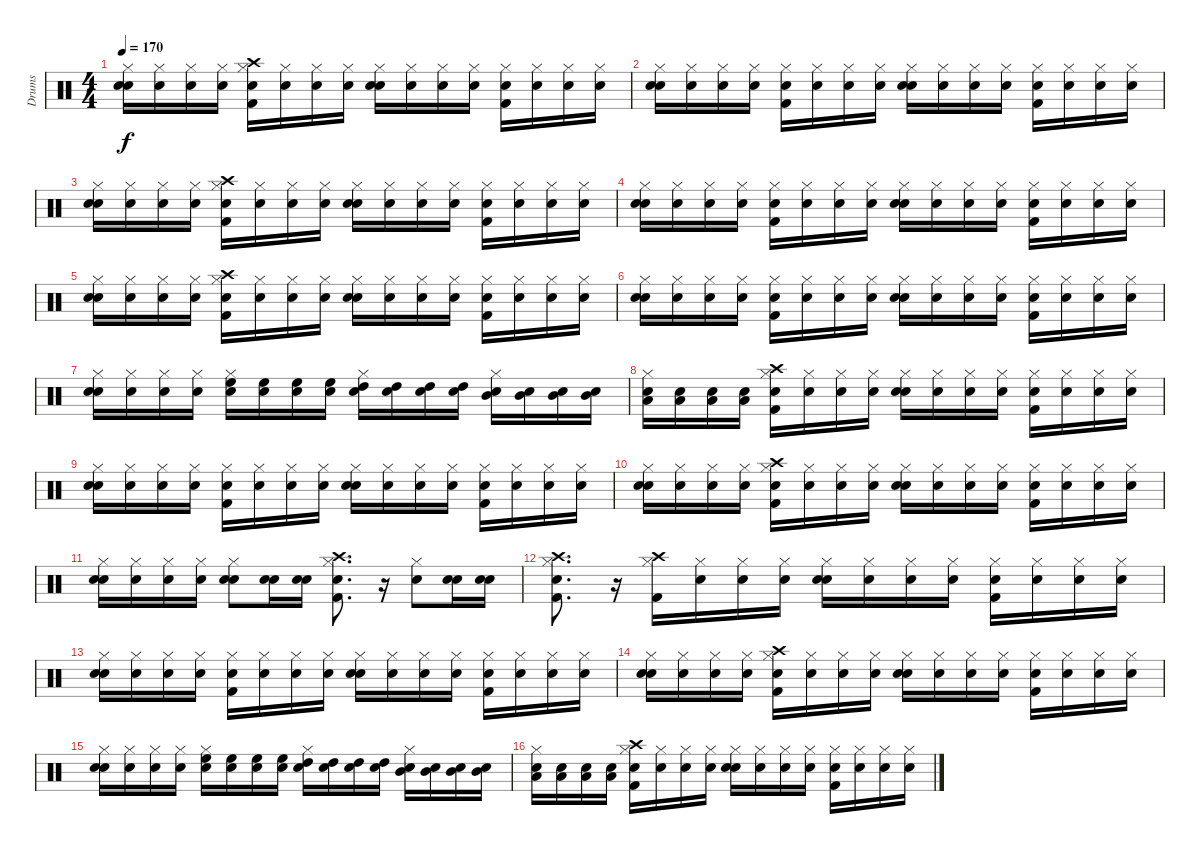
\track ("Drums" "Drums") {instrument percussion}
\staff {score}
\articulation defaults
\ts (4 4)
\tempo 170
\clef neutral
\ks c
("Snare (hit)" "Snare (hit) 2" "Hi-Hat (closed)").16{dy f} ("Snare (hit)" "Hi-Hat (closed)").16 ("Snare (hit)" "Hi-Hat (closed)").16 ("Snare (hit)" "Hi-Hat (closed)").16 ("Snare (hit)" "Kick (hit) 2" "Hi-Hat (closed)" "Crash high (hit)").16 ("Snare (hit)" "Hi-Hat (closed)").16 ("Snare (hit)" "Hi-Hat (closed)").16 ("Snare (hit)" "Hi-Hat (closed)").16 ("Snare (hit)" "Snare (hit) 2" "Hi-Hat (closed)").16 ("Snare (hit)" "Hi-Hat (closed)").16 ("Snare (hit)" "Hi-Hat (closed)").16 ("Snare (hit)" "Hi-Hat (closed)").16 ("Snare (hit)" "Kick (hit) 2" "Hi-Hat (closed)").16 ("Snare (hit)" "Hi-Hat (closed)").16 ("Snare (hit)" "Hi-Hat (closed)").16 ("Snare (hit)" "Hi-Hat (closed)").16 |
("Snare (hit)" "Snare (hit) 2" "Hi-Hat (closed)").16 ("Snare (hit)" "Hi-Hat (closed)").16 ("Snare (hit)" "Hi-Hat (closed)").16 ("Snare (hit)" "Hi-Hat (closed)").16 ("Snare (hit)" "Kick (hit) 2" "Hi-Hat (closed)").16 ("Snare (hit)" "Hi-Hat (closed)").16 ("Snare (hit)" "Hi-Hat (closed)").16 ("Snare (hit)" "Hi-Hat (closed)").16 ("Snare (hit)" "Snare (hit) 2" "Hi-Hat (closed)").16 ("Snare (hit)" "Hi-Hat (closed)").16 ("Snare (hit)" "Hi-Hat (closed)").16 ("Snare (hit)" "Hi-Hat (closed)").16 ("Snare (hit)" "Kick (hit) 2" "Hi-Hat (closed)").16 ("Snare (hit)" "Hi-Hat (closed)").16 ("Snare (hit)" "Hi-Hat (closed)").16 ("Snare (hit)" "Hi-Hat (closed)").16 |
("Snare (hit)" "Snare (hit) 2" "Hi-Hat (closed)").16 ("Snare (hit)" "Hi-Hat (closed)").16 ("Snare (hit)" "Hi-Hat (closed)").16 ("Snare (hit)" "Hi-Hat (closed)").16 ("Snare (hit)" "Kick (hit) 2" "Hi-Hat (closed)" "Crash high (hit)").16 ("Snare (hit)" "Hi-Hat (closed)").16 ("Snare (hit)" "Hi-Hat (closed)").16 ("Snare (hit)" "Hi-Hat (closed)").16 ("Snare (hit)" "Snare (hit) 2" "Hi-Hat (closed)").16 ("Snare (hit)" "Hi-Hat (closed)").16 ("Snare (hit)" "Hi-Hat (closed)").16 ("Snare (hit)" "Hi-Hat (closed)").16 ("Snare (hit)" "Kick (hit) 2" "Hi-Hat (closed)").16 ("Snare (hit)" "Hi-Hat (closed)").16 ("Snare (hit)" "Hi-Hat (closed)").16 ("Snare (hit)" "Hi-Hat (closed)").16 |
("Snare (hit)" "Snare (hit) 2" "Hi-Hat (closed)").16 ("Snare (hit)" "Hi-Hat (closed)").16 ("Snare (hit)" "Hi-Hat (closed)").16 ("Snare (hit)" "Hi-Hat (closed)").16 ("Snare (hit)" "Kick (hit) 2" "Hi-Hat (closed)").16 ("Snare (hit)" "Hi-Hat (closed)").16 ("Snare (hit)" "Hi-Hat (closed)").16 ("Snare (hit)" "Hi-Hat (closed)").16 ("Snare (hit)" "Snare (hit) 2" "Hi-Hat (closed)").16 ("Snare (hit)" "Hi-Hat (closed)").16 ("Snare (hit)" "Hi-Hat (closed)").16 ("Snare (hit)" "Hi-Hat (closed)").16 ("Snare (hit)" "Kick (hit) 2" "Hi-Hat (closed)").16 ("Snare (hit)" "Hi-Hat (closed)").16 ("Snare (hit)" "Hi-Hat (closed)").16 ("Snare (hit)" "Hi-Hat (closed)").16 |
("Snare (hit)" "Snare (hit) 2" "Hi-Hat (closed)").16 ("Snare (hit)" "Hi-Hat (closed)").16 ("Snare (hit)" "Hi-Hat (closed)").16 ("Snare (hit)" "Hi-Hat (closed)").16 ("Snare (hit)" "Kick (hit) 2" "Hi-Hat (closed)" "Crash high (hit)").16 ("Snare (hit)" "Hi-Hat (closed)").16 ("Snare (hit)" "Hi-Hat (closed)").16 ("Snare (hit)" "Hi-Hat (closed)").16 ("Snare (hit)" "Snare (hit) 2" "Hi-Hat (closed)").16 ("Snare (hit)" "Hi-Hat (closed)").16 ("Snare (hit)" "Hi-Hat (closed)").16 ("Snare (hit)" "Hi-Hat (closed)").16 ("Snare (hit)" "Kick (hit) 2" "Hi-Hat (closed)").16 ("Snare (hit)" "Hi-Hat (closed)").16 ("Snare (hit)" "Hi-Hat (closed)").16 ("Snare (hit)" "Hi-Hat (closed)").16 |
("Snare (hit)" "Snare (hit) 2" "Hi-Hat (closed)").16 ("Snare (hit)" "Hi-Hat (closed)").16 ("Snare (hit)" "Hi-Hat (closed)").16 ("Snare (hit)" "Hi-Hat (closed)").16 ("Snare (hit)" "Kick (hit) 2" "Hi-Hat (closed)").16 ("Snare (hit)" "Hi-Hat (closed)").16 ("Snare (hit)" "Hi-Hat (closed)").16 ("Snare (hit)" "Hi-Hat (closed)").16 ("Snare (hit)" "Snare (hit) 2" "Hi-Hat (closed)").16 ("Snare (hit)" "Hi-Hat (closed)").16 ("Snare (hit)" "Hi-Hat (closed)").16 ("Snare (hit)" "Hi-Hat (closed)").16 ("Snare (hit)" "Kick (hit) 2" "Hi-Hat (closed)").16 ("Snare (hit)" "Hi-Hat (closed)").16 ("Snare (hit)" "Hi-Hat (closed)").16 ("Snare (hit)" "Hi-Hat (closed)").16 |
("Snare (hit)" "Snare (hit) 2" "Hi-Hat (closed)").16 ("Snare (hit)" "Hi-Hat (closed)").16 ("Snare (hit)" "Hi-Hat (closed)").16 ("Snare (hit)" "Hi-Hat (closed)").16 ("Snare (hit)" "Hi-Hat (closed)" "High Floor Tom (hit)").16 ("Snare (hit)" "High Floor Tom (hit)").16 ("Snare (hit)" "High Floor Tom (hit)").16 ("Snare (hit)" "High Floor Tom (hit)").16 ("Snare (hit)" "Hi-Hat (closed)" "High Tom (hit)").16 ("Snare (hit)" "High Tom (hit)").16 ("Snare (hit)" "High Tom (hit)").16 ("Snare (hit)" "High Tom (hit)").16 ("Snare (hit)" "Hi-Hat (closed)" "Mid Tom (hit)").16 ("Snare (hit)" "Mid Tom (hit)").16 ("Snare (hit)" "Mid Tom (hit)").16 ("Snare (hit)" "Mid Tom (hit)").16 |
("Snare (hit)" "Hi-Hat (closed)" "Low Tom (hit)").16 ("Snare (hit)" "Low Tom (hit)").16 ("Snare (hit)" "Low Tom (hit)").16 ("Snare (hit)" "Low Tom (hit)").16 ("Snare (hit)" "Kick (hit) 2" "Hi-Hat (closed)" "Crash high (hit)").16 ("Snare (hit)" "Hi-Hat (closed)").16 ("Snare (hit)" "Hi-Hat (closed)").16 ("Snare (hit)" "Hi-Hat (closed)").16 ("Snare (hit)" "Snare (hit) 2" "Hi-Hat (closed)").16 ("Snare (hit)" "Hi-Hat (closed)").16 ("Snare (hit)" "Hi-Hat (closed)").16 ("Snare (hit)" "Hi-Hat (closed)").16 ("Snare (hit)" "Kick (hit) 2" "Hi-Hat (closed)").16 ("Snare (hit)" "Hi-Hat (closed)").16 ("Snare (hit)" "Hi-Hat (closed)").16 ("Snare (hit)" "Hi-Hat (closed)").16 |
("Snare (hit)" "Snare (hit) 2" "Hi-Hat (closed)").16 ("Snare (hit)" "Hi-Hat (closed)").16 ("Snare (hit)" "Hi-Hat (closed)").16 ("Snare (hit)" "Hi-Hat (closed)").16 ("Snare (hit)" "Kick (hit) 2" "Hi-Hat (closed)").16 ("Snare (hit)" "Hi-Hat (closed)").16 ("Snare (hit)" "Hi-Hat (closed)").16 ("Snare (hit)" "Hi-Hat (closed)").16 ("Snare (hit)" "Snare (hit) 2" "Hi-Hat (closed)").16 ("Snare (hit)" "Hi-Hat (closed)").16 ("Snare (hit)" "Hi-Hat (closed)").16 ("Snare (hit)" "Hi-Hat (closed)").16 ("Snare (hit)" "Kick (hit) 2" "Hi-Hat (closed)").16 ("Snare (hit)" "Hi-Hat (closed)").16 ("Snare (hit)" "Hi-Hat (closed)").16 ("Snare (hit)" "Hi-Hat (closed)").16 |
("Snare (hit)" "Snare (hit) 2" "Hi-Hat (closed)").16 ("Snare (hit)" "Hi-Hat (closed)").16 ("Snare (hit)" "Hi-Hat (closed)").16 ("Snare (hit)" "Hi-Hat (closed)").16 ("Snare (hit)" "Kick (hit) 2" "Hi-Hat (closed)" "Crash high (hit)").16 ("Snare (hit)" "Hi-Hat (closed)").16 ("Snare (hit)" "Hi-Hat (closed)").16 ("Snare (hit)" "Hi-Hat (closed)").16 ("Snare (hit)" "Snare (hit) 2" "Hi-Hat (closed)").16 ("Snare (hit)" "Hi-Hat (closed)").16 ("Snare (hit)" "Hi-Hat (closed)").16 ("Snare (hit)" "Hi-Hat (closed)").16 ("Snare (hit)" "Kick (hit) 2" "Hi-Hat (closed)").16 ("Snare (hit)" "Hi-Hat (closed)").16 ("Snare (hit)" "Hi-Hat (closed)").16 ("Snare (hit)" "Hi-Hat (closed)").16 |
("Snare (hit)" "Snare (hit) 2" "Hi-Hat (closed)").16 ("Snare (hit)" "Hi-Hat (closed)").16 ("Snare (hit)" "Hi-Hat (closed)").16 ("Snare (hit)" "Hi-Hat (closed)").16 ("Snare (hit)" "Snare (hit) 2" "Hi-Hat (closed)").8 ("Snare (hit)" "Snare (hit) 2").16 ("Snare (hit)" "Snare (hit) 2").16 ("Snare (hit)" "Kick (hit) 2" "Hi-Hat (closed)" "Crash high (hit)").8{d} r.16 ("Snare (hit) 2" "Hi-Hat (closed)").8 ("Snare (hit)" "Snare (hit) 2").16 ("Snare (hit)" "Snare (hit) 2").16 |
("Snare (hit)" "Kick (hit) 2" "Hi-Hat (closed)" "Crash high (hit)").8{d} r.16 ("Kick (hit) 2" "Hi-Hat (closed)" "Crash high (hit)").16 ("Snare (hit)" "Hi-Hat (closed)").16 ("Snare (hit)" "Hi-Hat (closed)").16 ("Snare (hit)" "Hi-Hat (closed)").16 ("Snare (hit)" "Snare (hit) 2" "Hi-Hat (closed)").16 ("Snare (hit)" "Hi-Hat (closed)").16 ("Snare (hit)" "Hi-Hat (closed)").16 ("Snare (hit)" "Hi-Hat (closed)").16 ("Snare (hit)" "Kick (hit) 2" "Hi-Hat (closed)").16 ("Snare (hit)" "Hi-Hat (closed)").16 ("Snare (hit)" "Hi-Hat (closed)").16 ("Snare (hit)" "Hi-Hat (closed)").16 |
("Snare (hit)" "Snare (hit) 2" "Hi-Hat (closed)").16 ("Snare (hit)" "Hi-Hat (closed)").16 ("Snare (hit)" "Hi-Hat (closed)").16 ("Snare (hit)" "Hi-Hat (closed)").16 ("Snare (hit)" "Kick (hit) 2" "Hi-Hat (closed)").16 ("Snare (hit)" "Hi-Hat (closed)").16 ("Snare (hit)" "Hi-Hat (closed)").16 ("Snare (hit)" "Hi-Hat (closed)").16 ("Snare (hit)" "Snare (hit) 2" "Hi-Hat (closed)").16 ("Snare (hit)" "Hi-Hat (closed)").16 ("Snare (hit)" "Hi-Hat (closed)").16 ("Snare (hit)" "Hi-Hat (closed)").16 ("Snare (hit)" "Kick (hit) 2" "Hi-Hat (closed)").16 ("Snare (hit)" "Hi-Hat (closed)").16 ("Snare (hit)" "Hi-Hat (closed)").16 ("Snare (hit)" "Hi-Hat (closed)").16 |
("Snare (hit)" "Snare (hit) 2" "Hi-Hat (closed)").16 ("Snare (hit)" "Hi-Hat (closed)").16 ("Snare (hit)" "Hi-Hat (closed)").16 ("Snare (hit)" "Hi-Hat (closed)").16 ("Snare (hit)" "Kick (hit) 2" "Hi-Hat (closed)" "Crash high (hit)").16 ("Snare (hit)" "Hi-Hat (closed)").16 ("Snare (hit)" "Hi-Hat (closed)").16 ("Snare (hit)" "Hi-Hat (closed)").16 ("Snare (hit)" "Snare (hit) 2" "Hi-Hat (closed)").16 ("Snare (hit)" "Hi-Hat (closed)").16 ("Snare (hit)" "Hi-Hat (closed)").16 ("Snare (hit)" "Hi-Hat (closed)").16 ("Snare (hit)" "Kick (hit) 2" "Hi-Hat (closed)").16 ("Snare (hit)" "Hi-Hat (closed)").16 ("Snare (hit)" "Hi-Hat (closed)").16 ("Snare (hit)" "Hi-Hat (closed)").16 |
("Snare (hit)" "Snare (hit) 2" "Hi-Hat (closed)").16 ("Snare (hit)" "Hi-Hat (closed)").16 ("Snare (hit)" "Hi-Hat (closed)").16 ("Snare (hit)" "Hi-Hat (closed)").16 ("Snare (hit)" "Hi-Hat (closed)" "High Floor Tom (hit)").16 ("Snare (hit)" "High Floor Tom (hit)").16 ("Snare (hit)" "High Floor Tom (hit)").16 ("Snare (hit)" "High Floor Tom (hit)").16 ("Snare (hit)" "Hi-Hat (closed)" "High Tom (hit)").16 ("Snare (hit)" "High Tom (hit)").16 ("Snare (hit)" "High Tom (hit)").16 ("Snare (hit)" "High Tom (hit)").16 ("Snare (hit)" "Hi-Hat (closed)" "Mid Tom (hit)").16 ("Snare (hit)" "Mid Tom (hit)").16 ("Snare (hit)" "Mid Tom (hit)").16 ("Snare (hit)" "Mid Tom (hit)").16 |
("Snare (hit)" "Hi-Hat (closed)" "Low Tom (hit)").16 ("Snare (hit)" "Low Tom (hit)").16 ("Snare (hit)" "Low Tom (hit)").16 ("Snare (hit)" "Low Tom (hit)").16 ("Snare (hit)" "Kick (hit) 2" "Hi-Hat (closed)" "Crash high (hit)").16 ("Snare (hit)" "Hi-Hat (closed)").16 ("Snare (hit)" "Hi-Hat (closed)").16 ("Snare (hit)" "Hi-Hat (closed)").16 ("Snare (hit)" "Snare (hit) 2" "Hi-Hat (closed)").16 ("Snare (hit)" "Hi-Hat (closed)").16 ("Snare (hit)" "Hi-Hat (closed)").16 ("Snare (hit)" "Hi-Hat (closed)").16 ("Snare (hit)" "Kick (hit) 2" "Hi-Hat (closed)").16 ("Snare (hit)" "Hi-Hat (closed)").16 ("Snare (hit)" "Hi-Hat (closed)").16 ("Snare (hit)" "Hi-Hat (closed)").16
